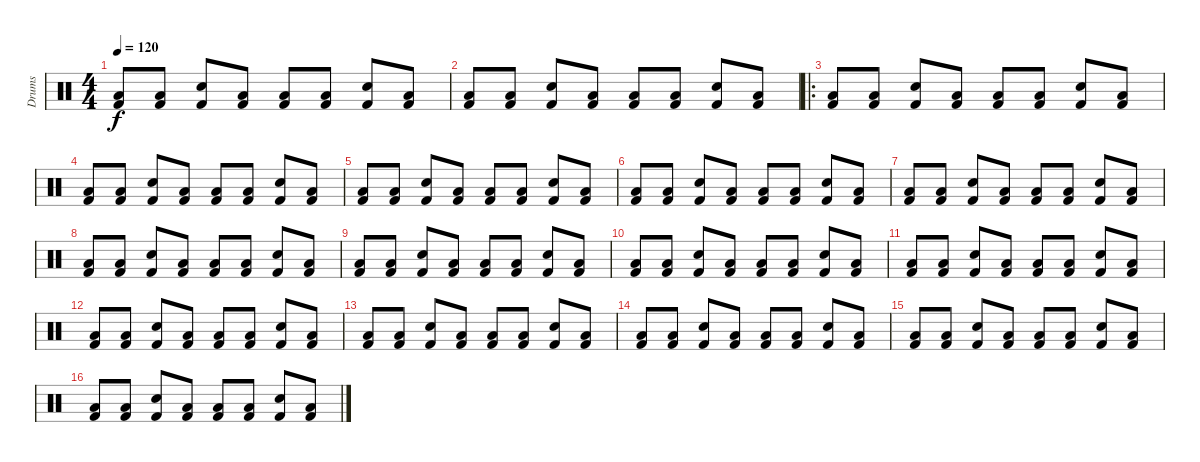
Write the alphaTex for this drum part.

\track ("Drums" "Drums") {instrument percussion}
\staff {score}
\articulation defaults
\ts (4 4)
\tempo 120
\clef neutral
\ks c
("Kick (hit) 2" "Low Floor Tom (hit)").8{dy f} ("Kick (hit) 2" "Low Floor Tom (hit)").8 ("Kick (hit) 2" "Snare (hit) 2").8 ("Kick (hit) 2" "Low Floor Tom (hit)").8 ("Kick (hit) 2" "Low Floor Tom (hit)").8 ("Kick (hit) 2" "Low Floor Tom (hit)").8 ("Kick (hit) 2" "Snare (hit) 2").8 ("Kick (hit) 2" "Low Floor Tom (hit)").8 |
("Kick (hit) 2" "Low Floor Tom (hit)").8 ("Kick (hit) 2" "Low Floor Tom (hit)").8 ("Kick (hit) 2" "Snare (hit) 2").8 ("Kick (hit) 2" "Low Floor Tom (hit)").8 ("Kick (hit) 2" "Low Floor Tom (hit)").8 ("Kick (hit) 2" "Low Floor Tom (hit)").8 ("Kick (hit) 2" "Snare (hit) 2").8 ("Kick (hit) 2" "Low Floor Tom (hit)").8 |
\ro
("Kick (hit) 2" "Low Floor Tom (hit)").8 ("Kick (hit) 2" "Low Floor Tom (hit)").8 ("Kick (hit) 2" "Snare (hit) 2").8 ("Kick (hit) 2" "Low Floor Tom (hit)").8 ("Kick (hit) 2" "Low Floor Tom (hit)").8 ("Kick (hit) 2" "Low Floor Tom (hit)").8 ("Kick (hit) 2" "Snare (hit) 2").8 ("Kick (hit) 2" "Low Floor Tom (hit)").8 |
("Kick (hit) 2" "Low Floor Tom (hit)").8 ("Kick (hit) 2" "Low Floor Tom (hit)").8 ("Kick (hit) 2" "Snare (hit) 2").8 ("Kick (hit) 2" "Low Floor Tom (hit)").8 ("Kick (hit) 2" "Low Floor Tom (hit)").8 ("Kick (hit) 2" "Low Floor Tom (hit)").8 ("Kick (hit) 2" "Snare (hit) 2").8 ("Kick (hit) 2" "Low Floor Tom (hit)").8 |
("Kick (hit) 2" "Low Floor Tom (hit)").8 ("Kick (hit) 2" "Low Floor Tom (hit)").8 ("Kick (hit) 2" "Snare (hit) 2").8 ("Kick (hit) 2" "Low Floor Tom (hit)").8 ("Kick (hit) 2" "Low Floor Tom (hit)").8 ("Kick (hit) 2" "Low Floor Tom (hit)").8 ("Kick (hit) 2" "Snare (hit) 2").8 ("Kick (hit) 2" "Low Floor Tom (hit)").8 |
("Kick (hit) 2" "Low Floor Tom (hit)").8 ("Kick (hit) 2" "Low Floor Tom (hit)").8 ("Kick (hit) 2" "Snare (hit) 2").8 ("Kick (hit) 2" "Low Floor Tom (hit)").8 ("Kick (hit) 2" "Low Floor Tom (hit)").8 ("Kick (hit) 2" "Low Floor Tom (hit)").8 ("Kick (hit) 2" "Snare (hit) 2").8 ("Kick (hit) 2" "Low Floor Tom (hit)").8 |
("Kick (hit) 2" "Low Floor Tom (hit)").8 ("Kick (hit) 2" "Low Floor Tom (hit)").8 ("Kick (hit) 2" "Snare (hit) 2").8 ("Kick (hit) 2" "Low Floor Tom (hit)").8 ("Kick (hit) 2" "Low Floor Tom (hit)").8 ("Kick (hit) 2" "Low Floor Tom (hit)").8 ("Kick (hit) 2" "Snare (hit) 2").8 ("Kick (hit) 2" "Low Floor Tom (hit)").8 |
("Kick (hit) 2" "Low Floor Tom (hit)").8 ("Kick (hit) 2" "Low Floor Tom (hit)").8 ("Kick (hit) 2" "Snare (hit) 2").8 ("Kick (hit) 2" "Low Floor Tom (hit)").8 ("Kick (hit) 2" "Low Floor Tom (hit)").8 ("Kick (hit) 2" "Low Floor Tom (hit)").8 ("Kick (hit) 2" "Snare (hit) 2").8 ("Kick (hit) 2" "Low Floor Tom (hit)").8 |
("Kick (hit) 2" "Low Floor Tom (hit)").8 ("Kick (hit) 2" "Low Floor Tom (hit)").8 ("Kick (hit) 2" "Snare (hit) 2").8 ("Kick (hit) 2" "Low Floor Tom (hit)").8 ("Kick (hit) 2" "Low Floor Tom (hit)").8 ("Kick (hit) 2" "Low Floor Tom (hit)").8 ("Kick (hit) 2" "Snare (hit) 2").8 ("Kick (hit) 2" "Low Floor Tom (hit)").8 |
("Kick (hit) 2" "Low Floor Tom (hit)").8 ("Kick (hit) 2" "Low Floor Tom (hit)").8 ("Kick (hit) 2" "Snare (hit) 2").8 ("Kick (hit) 2" "Low Floor Tom (hit)").8 ("Kick (hit) 2" "Low Floor Tom (hit)").8 ("Kick (hit) 2" "Low Floor Tom (hit)").8 ("Kick (hit) 2" "Snare (hit) 2").8 ("Kick (hit) 2" "Low Floor Tom (hit)").8 |
("Kick (hit) 2" "Low Floor Tom (hit)").8 ("Kick (hit) 2" "Low Floor Tom (hit)").8 ("Kick (hit) 2" "Snare (hit) 2").8 ("Kick (hit) 2" "Low Floor Tom (hit)").8 ("Kick (hit) 2" "Low Floor Tom (hit)").8 ("Kick (hit) 2" "Low Floor Tom (hit)").8 ("Kick (hit) 2" "Snare (hit) 2").8 ("Kick (hit) 2" "Low Floor Tom (hit)").8 |
("Kick (hit) 2" "Low Floor Tom (hit)").8 ("Kick (hit) 2" "Low Floor Tom (hit)").8 ("Kick (hit) 2" "Snare (hit) 2").8 ("Kick (hit) 2" "Low Floor Tom (hit)").8 ("Kick (hit) 2" "Low Floor Tom (hit)").8 ("Kick (hit) 2" "Low Floor Tom (hit)").8 ("Kick (hit) 2" "Snare (hit) 2").8 ("Kick (hit) 2" "Low Floor Tom (hit)").8 |
("Kick (hit) 2" "Low Floor Tom (hit)").8 ("Kick (hit) 2" "Low Floor Tom (hit)").8 ("Kick (hit) 2" "Snare (hit) 2").8 ("Kick (hit) 2" "Low Floor Tom (hit)").8 ("Kick (hit) 2" "Low Floor Tom (hit)").8 ("Kick (hit) 2" "Low Floor Tom (hit)").8 ("Kick (hit) 2" "Snare (hit) 2").8 ("Kick (hit) 2" "Low Floor Tom (hit)").8 |
("Kick (hit) 2" "Low Floor Tom (hit)").8 ("Kick (hit) 2" "Low Floor Tom (hit)").8 ("Kick (hit) 2" "Snare (hit) 2").8 ("Kick (hit) 2" "Low Floor Tom (hit)").8 ("Kick (hit) 2" "Low Floor Tom (hit)").8 ("Kick (hit) 2" "Low Floor Tom (hit)").8 ("Kick (hit) 2" "Snare (hit) 2").8 ("Kick (hit) 2" "Low Floor Tom (hit)").8 |
("Kick (hit) 2" "Low Floor Tom (hit)").8 ("Kick (hit) 2" "Low Floor Tom (hit)").8 ("Kick (hit) 2" "Snare (hit) 2").8 ("Kick (hit) 2" "Low Floor Tom (hit)").8 ("Kick (hit) 2" "Low Floor Tom (hit)").8 ("Kick (hit) 2" "Low Floor Tom (hit)").8 ("Kick (hit) 2" "Snare (hit) 2").8 ("Kick (hit) 2" "Low Floor Tom (hit)").8 |
("Kick (hit) 2" "Low Floor Tom (hit)").8 ("Kick (hit) 2" "Low Floor Tom (hit)").8 ("Kick (hit) 2" "Snare (hit) 2").8 ("Kick (hit) 2" "Low Floor Tom (hit)").8 ("Kick (hit) 2" "Low Floor Tom (hit)").8 ("Kick (hit) 2" "Low Floor Tom (hit)").8 ("Kick (hit) 2" "Snare (hit) 2").8 ("Kick (hit) 2" "Low Floor Tom (hit)").8
